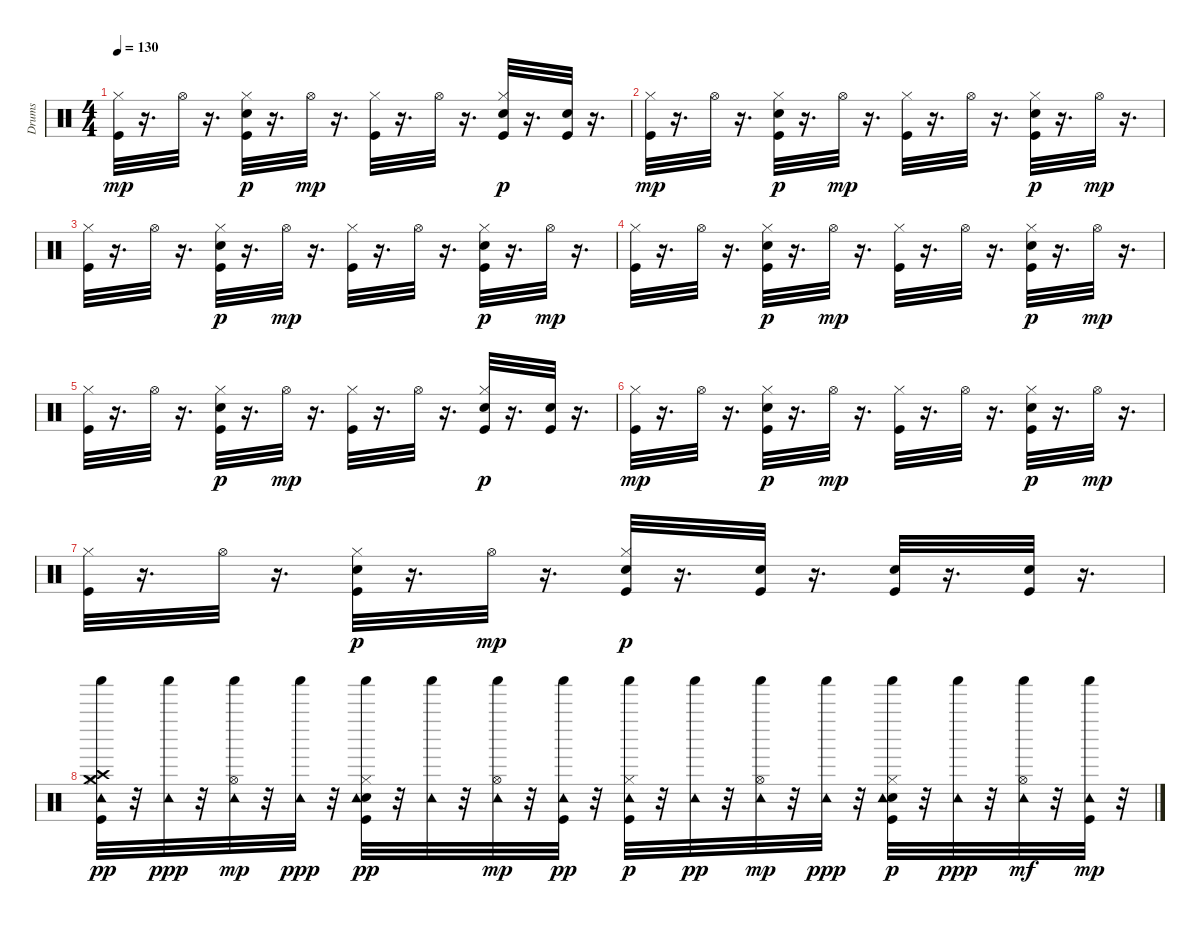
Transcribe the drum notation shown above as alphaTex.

\track ("Drums" "Drums") {instrument percussion}
\staff {score}
\articulation defaults
\ts (4 4)
\tempo 130
\clef neutral
\ks c
("Kick (hit)" "Hi-Hat (closed)").32{dy mp} r.16{d} "Hi-Hat (open)".32 r.16{d} ("Kick (hit)" "Hi-Hat (closed)" "Electric Snare (hit)").32{dy p} r.16{d} "Hi-Hat (open)".32{dy mp} r.16{d} ("Kick (hit)" "Hi-Hat (closed)").32 r.16{d} "Hi-Hat (open)".32 r.16{d} ("Kick (hit)" "Hi-Hat (closed)" "Electric Snare (hit)").32{dy p} r.16{d} ("Kick (hit)" "Electric Snare (hit)").32 r.16{d} |
("Kick (hit)" "Hi-Hat (closed)").32{dy mp} r.16{d} "Hi-Hat (open)".32 r.16{d} ("Kick (hit)" "Hi-Hat (closed)" "Electric Snare (hit)").32{dy p} r.16{d} "Hi-Hat (open)".32{dy mp} r.16{d} ("Kick (hit)" "Hi-Hat (closed)").32 r.16{d} "Hi-Hat (open)".32 r.16{d} ("Kick (hit)" "Hi-Hat (closed)" "Electric Snare (hit)").32{dy p} r.16{d} "Hi-Hat (open)".32{dy mp} r.16{d} |
("Kick (hit)" "Hi-Hat (closed)").32 r.16{d} "Hi-Hat (open)".32 r.16{d} ("Kick (hit)" "Hi-Hat (closed)" "Electric Snare (hit)").32{dy p} r.16{d} "Hi-Hat (open)".32{dy mp} r.16{d} ("Kick (hit)" "Hi-Hat (closed)").32 r.16{d} "Hi-Hat (open)".32 r.16{d} ("Kick (hit)" "Hi-Hat (closed)" "Electric Snare (hit)").32{dy p} r.16{d} "Hi-Hat (open)".32{dy mp} r.16{d} |
("Kick (hit)" "Hi-Hat (closed)").32 r.16{d} "Hi-Hat (open)".32 r.16{d} ("Kick (hit)" "Hi-Hat (closed)" "Electric Snare (hit)").32{dy p} r.16{d} "Hi-Hat (open)".32{dy mp} r.16{d} ("Kick (hit)" "Hi-Hat (closed)").32 r.16{d} "Hi-Hat (open)".32 r.16{d} ("Kick (hit)" "Hi-Hat (closed)" "Electric Snare (hit)").32{dy p} r.16{d} "Hi-Hat (open)".32{dy mp} r.16{d} |
("Kick (hit)" "Hi-Hat (closed)").32 r.16{d} "Hi-Hat (open)".32 r.16{d} ("Kick (hit)" "Hi-Hat (closed)" "Electric Snare (hit)").32{dy p} r.16{d} "Hi-Hat (open)".32{dy mp} r.16{d} ("Kick (hit)" "Hi-Hat (closed)").32 r.16{d} "Hi-Hat (open)".32 r.16{d} ("Kick (hit)" "Hi-Hat (closed)" "Electric Snare (hit)").32{dy p} r.16{d} ("Kick (hit)" "Electric Snare (hit)").32 r.16{d} |
("Kick (hit)" "Hi-Hat (closed)").32{dy mp} r.16{d} "Hi-Hat (open)".32 r.16{d} ("Kick (hit)" "Hi-Hat (closed)" "Electric Snare (hit)").32{dy p} r.16{d} "Hi-Hat (open)".32{dy mp} r.16{d} ("Kick (hit)" "Hi-Hat (closed)").32 r.16{d} "Hi-Hat (open)".32 r.16{d} ("Kick (hit)" "Hi-Hat (closed)" "Electric Snare (hit)").32{dy p} r.16{d} "Hi-Hat (open)".32{dy mp} r.16{d} |
("Kick (hit)" "Hi-Hat (closed)").32 r.16{d} "Hi-Hat (open)".32 r.16{d} ("Kick (hit)" "Hi-Hat (closed)" "Electric Snare (hit)").32{dy p} r.16{d} "Hi-Hat (open)".32{dy mp} r.16{d} ("Kick (hit)" "Hi-Hat (closed)" "Electric Snare (hit)").32{dy p} r.16{d} ("Kick (hit)" "Electric Snare (hit)").32 r.16{d} ("Kick (hit)" "Electric Snare (hit)").32 r.16{d} ("Kick (hit)" "Electric Snare (hit)").32 r.16{d} |
("Kick (hit)" "Hi-Hat (closed)" "Crash high (hit)" "Crash medium (hit)" "Shaker (hit)" "Tambourine (hit)").32{dy pp} r.32 ("Shaker (hit)" "Tambourine (hit)").32{dy ppp} r.32 ("Hi-Hat (open)" "Shaker (hit)" "Tambourine (hit)").32{dy mp} r.32 ("Shaker (hit)" "Tambourine (hit)").32{dy ppp} r.32 ("Kick (hit)" "Hi-Hat (closed)" "Shaker (hit)" "Snare (hit) 2" "Tambourine (hit)").32{dy pp} r.32 ("Shaker (hit)" "Tambourine (hit)").32 r.32 ("Hi-Hat (open)" "Shaker (hit)" "Tambourine (hit)").32{dy mp} r.32 ("Shaker (hit)" "Kick (hit)" "Tambourine (hit)").32{dy pp} r.32 ("Kick (hit)" "Hi-Hat (closed)" "Shaker (hit)" "Tambourine (hit)").32{dy p} r.32 ("Shaker (hit)" "Tambourine (hit)").32{dy pp} r.32 ("Hi-Hat (open)" "Shaker (hit)" "Tambourine (hit)").32{dy mp} r.32 ("Shaker (hit)" "Tambourine (hit)").32{dy ppp} r.32 ("Kick (hit)" "Hi-Hat (closed)" "Shaker (hit)" "Snare (hit) 2" "Tambourine (hit)").32{dy p} r.32 ("Shaker (hit)" "Tambourine (hit)").32{dy ppp} r.32 ("Hi-Hat (open)" "Shaker (hit)" "Tambourine (hit)").32{dy mf} r.32 ("Shaker (hit)" "Tambourine (hit)" "Kick (hit)").32{dy mp} r.32
